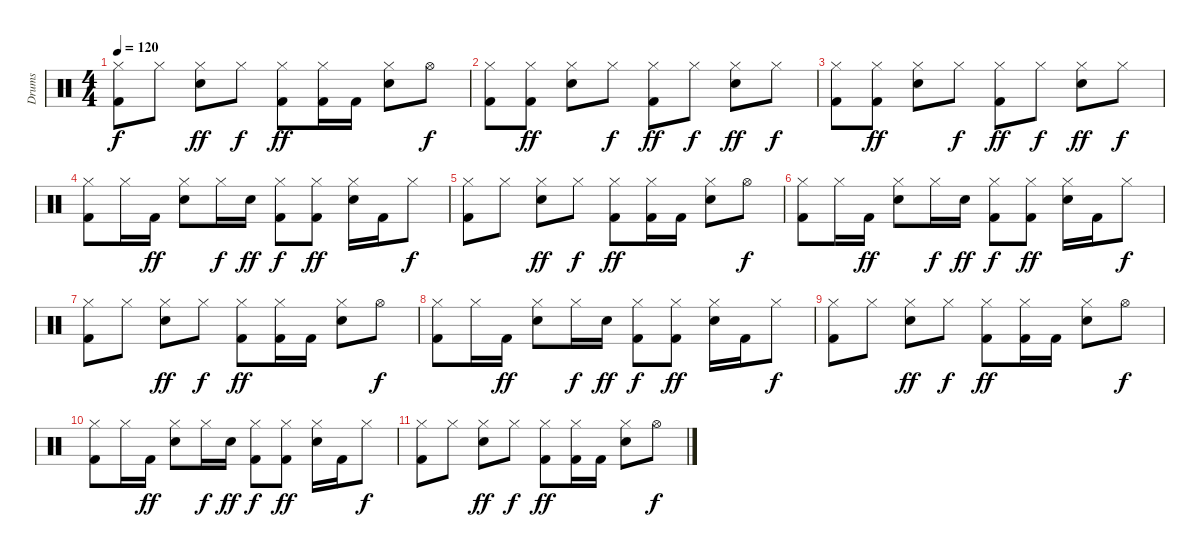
\track ("Drums" "Drums") {instrument percussion}
\staff {score}
\articulation defaults
\ts (4 4)
\tempo 120
\clef neutral
\ks c
("Hi-Hat (closed)" "Kick (hit) 2").8{dy f} "Hi-Hat (closed)".8 ("Hi-Hat (closed)" "Electric Snare (hit)").8{dy ff} "Hi-Hat (closed)".8{dy f} ("Hi-Hat (closed)" "Kick (hit) 2").8{dy ff} ("Hi-Hat (closed)" "Kick (hit) 2").16 "Kick (hit) 2".16 ("Hi-Hat (closed)" "Electric Snare (hit)").8 "Hi-Hat (open)".8{dy f} |
("Hi-Hat (closed)" "Kick (hit) 2").8 ("Hi-Hat (closed)" "Kick (hit) 2").8{dy ff} ("Hi-Hat (closed)" "Electric Snare (hit)").8 "Hi-Hat (closed)".8{dy f} ("Hi-Hat (closed)" "Kick (hit) 2").8{dy ff} "Hi-Hat (closed)".8{dy f} ("Hi-Hat (closed)" "Electric Snare (hit)").8{dy ff} "Hi-Hat (closed)".8{dy f} |
("Hi-Hat (closed)" "Kick (hit) 2").8 ("Hi-Hat (closed)" "Kick (hit) 2").8{dy ff} ("Hi-Hat (closed)" "Electric Snare (hit)").8 "Hi-Hat (closed)".8{dy f} ("Hi-Hat (closed)" "Kick (hit) 2").8{dy ff} "Hi-Hat (closed)".8{dy f} ("Hi-Hat (closed)" "Electric Snare (hit)").8{dy ff} "Hi-Hat (closed)".8{dy f} |
("Hi-Hat (closed)" "Kick (hit) 2").8 "Hi-Hat (closed)".16 "Kick (hit) 2".16{dy ff} ("Hi-Hat (closed)" "Electric Snare (hit)").8 "Hi-Hat (closed)".16{dy f} "Electric Snare (hit)".16{dy ff} ("Hi-Hat (closed)" "Kick (hit) 2").8{dy f} ("Hi-Hat (closed)" "Kick (hit) 2").8{dy ff} ("Hi-Hat (closed)" "Electric Snare (hit)").16 "Kick (hit) 2".16 "Hi-Hat (closed)".8{dy f} |
("Hi-Hat (closed)" "Kick (hit) 2").8 "Hi-Hat (closed)".8 ("Hi-Hat (closed)" "Electric Snare (hit)").8{dy ff} "Hi-Hat (closed)".8{dy f} ("Hi-Hat (closed)" "Kick (hit) 2").8{dy ff} ("Hi-Hat (closed)" "Kick (hit) 2").16 "Kick (hit) 2".16 ("Hi-Hat (closed)" "Electric Snare (hit)").8 "Hi-Hat (open)".8{dy f} |
("Hi-Hat (closed)" "Kick (hit) 2").8 "Hi-Hat (closed)".16 "Kick (hit) 2".16{dy ff} ("Hi-Hat (closed)" "Electric Snare (hit)").8 "Hi-Hat (closed)".16{dy f} "Electric Snare (hit)".16{dy ff} ("Hi-Hat (closed)" "Kick (hit) 2").8{dy f} ("Hi-Hat (closed)" "Kick (hit) 2").8{dy ff} ("Hi-Hat (closed)" "Electric Snare (hit)").16 "Kick (hit) 2".16 "Hi-Hat (closed)".8{dy f} |
("Hi-Hat (closed)" "Kick (hit) 2").8 "Hi-Hat (closed)".8 ("Hi-Hat (closed)" "Electric Snare (hit)").8{dy ff} "Hi-Hat (closed)".8{dy f} ("Hi-Hat (closed)" "Kick (hit) 2").8{dy ff} ("Hi-Hat (closed)" "Kick (hit) 2").16 "Kick (hit) 2".16 ("Hi-Hat (closed)" "Electric Snare (hit)").8 "Hi-Hat (open)".8{dy f} |
("Hi-Hat (closed)" "Kick (hit) 2").8 "Hi-Hat (closed)".16 "Kick (hit) 2".16{dy ff} ("Hi-Hat (closed)" "Electric Snare (hit)").8 "Hi-Hat (closed)".16{dy f} "Electric Snare (hit)".16{dy ff} ("Hi-Hat (closed)" "Kick (hit) 2").8{dy f} ("Hi-Hat (closed)" "Kick (hit) 2").8{dy ff} ("Hi-Hat (closed)" "Electric Snare (hit)").16 "Kick (hit) 2".16 "Hi-Hat (closed)".8{dy f} |
("Hi-Hat (closed)" "Kick (hit) 2").8 "Hi-Hat (closed)".8 ("Hi-Hat (closed)" "Electric Snare (hit)").8{dy ff} "Hi-Hat (closed)".8{dy f} ("Hi-Hat (closed)" "Kick (hit) 2").8{dy ff} ("Hi-Hat (closed)" "Kick (hit) 2").16 "Kick (hit) 2".16 ("Hi-Hat (closed)" "Electric Snare (hit)").8 "Hi-Hat (open)".8{dy f} |
("Hi-Hat (closed)" "Kick (hit) 2").8 "Hi-Hat (closed)".16 "Kick (hit) 2".16{dy ff} ("Hi-Hat (closed)" "Electric Snare (hit)").8 "Hi-Hat (closed)".16{dy f} "Electric Snare (hit)".16{dy ff} ("Hi-Hat (closed)" "Kick (hit) 2").8{dy f} ("Hi-Hat (closed)" "Kick (hit) 2").8{dy ff} ("Hi-Hat (closed)" "Electric Snare (hit)").16 "Kick (hit) 2".16 "Hi-Hat (closed)".8{dy f} |
("Hi-Hat (closed)" "Kick (hit) 2").8 "Hi-Hat (closed)".8 ("Hi-Hat (closed)" "Electric Snare (hit)").8{dy ff} "Hi-Hat (closed)".8{dy f} ("Hi-Hat (closed)" "Kick (hit) 2").8{dy ff} ("Hi-Hat (closed)" "Kick (hit) 2").16 "Kick (hit) 2".16 ("Hi-Hat (closed)" "Electric Snare (hit)").8 "Hi-Hat (open)".8{dy f}
